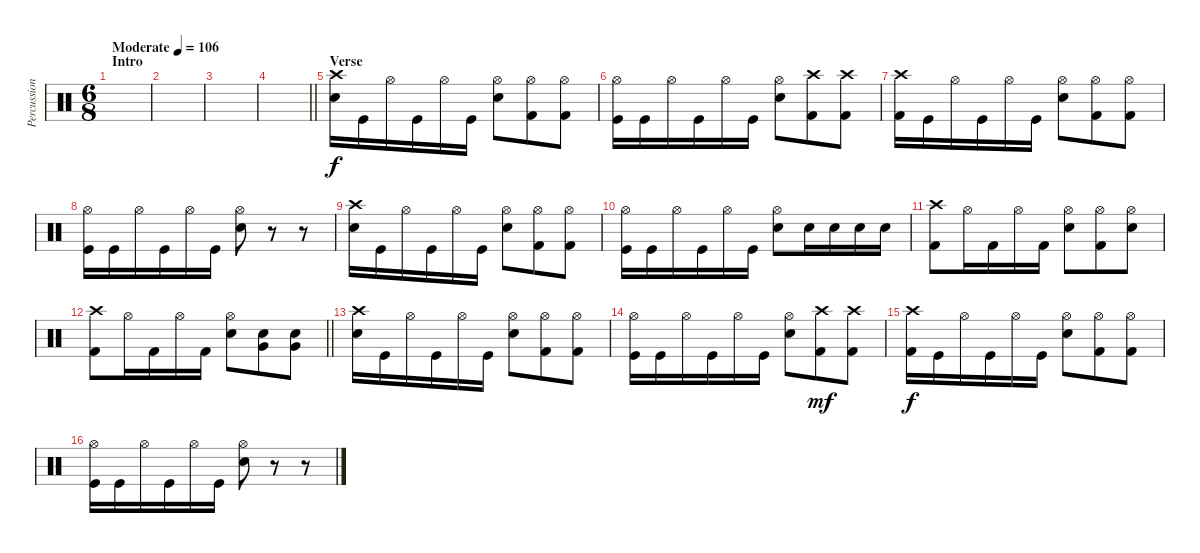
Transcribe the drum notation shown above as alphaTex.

\track ("Percussion" "Percussion") {instrument percussion}
\staff {score}
\articulation defaults
\ts (6 8)
\section ("" "Intro")
\tempo (106 "Moderate")
\clef neutral
\ks c
|
|
|
\barLineRight lightlight
|
\section ("" "Verse")
("Snare (hit) 2" "Crash high (hit)").16 "Kick (hit)".16 "Hi-Hat (open)".16 "Kick (hit)".16 "Hi-Hat (open)".16 "Kick (hit)".16 ("Snare (hit) 2" "Hi-Hat (open)").8 ("Kick (hit) 2" "Hi-Hat (open)").8 ("Kick (hit) 2" "Hi-Hat (open)").8 |
("Kick (hit)" "Hi-Hat (open)").16 "Kick (hit)".16 "Hi-Hat (open)".16 "Kick (hit)".16 "Hi-Hat (open)".16 "Kick (hit)".16 ("Snare (hit) 2" "Hi-Hat (open)").8 ("Kick (hit) 2" "Crash high (hit)").8 ("Kick (hit) 2" "Crash high (hit)").8 |
("Kick (hit) 2" "Crash high (hit)").16 "Kick (hit)".16 "Hi-Hat (open)".16 "Kick (hit)".16 "Hi-Hat (open)".16 "Kick (hit)".16 ("Snare (hit) 2" "Hi-Hat (open)").8 ("Kick (hit) 2" "Hi-Hat (open)").8 ("Kick (hit) 2" "Hi-Hat (open)").8 |
("Kick (hit)" "Hi-Hat (open)").16 "Kick (hit)".16 "Hi-Hat (open)".16 "Kick (hit)".16 "Hi-Hat (open)".16 "Kick (hit)".16 ("Snare (hit) 2" "Hi-Hat (open)").8 r.8 r.8 |
("Snare (hit) 2" "Crash high (hit)").16 "Kick (hit)".16 "Hi-Hat (open)".16 "Kick (hit)".16 "Hi-Hat (open)".16 "Kick (hit)".16 ("Snare (hit) 2" "Hi-Hat (open)").8 ("Kick (hit) 2" "Hi-Hat (open)").8 ("Kick (hit) 2" "Hi-Hat (open)").8 |
("Kick (hit)" "Hi-Hat (open)").16 "Kick (hit)".16 "Hi-Hat (open)".16 "Kick (hit)".16 "Hi-Hat (open)".16 "Kick (hit)".16 ("Snare (hit) 2" "Hi-Hat (open)").8 "Snare (hit) 2".16 "Snare (hit) 2".16 "Snare (hit) 2".16 "Snare (hit) 2".16 |
("Kick (hit) 2" "Crash high (hit)").8 "Hi-Hat (open)".16 "Kick (hit) 2".16 "Hi-Hat (open)".16 "Kick (hit) 2".16 ("Snare (hit) 2" "Hi-Hat (open)").8 ("Kick (hit) 2" "Hi-Hat (open)").8 ("Snare (hit) 2" "Hi-Hat (open)").8 |
\barLineRight lightlight
("Kick (hit) 2" "Crash high (hit)").8 "Hi-Hat (open)".16 "Kick (hit) 2".16 "Hi-Hat (open)".16 "Kick (hit) 2".16 ("Snare (hit) 2" "Hi-Hat (open)").8 ("Snare (hit) 2" "Very Low Tom (hit)").8 ("Snare (hit) 2" "Very Low Tom (hit)").8 |
("Snare (hit) 2" "Crash high (hit)").16 "Kick (hit)".16 "Hi-Hat (open)".16 "Kick (hit)".16 "Hi-Hat (open)".16 "Kick (hit)".16 ("Snare (hit) 2" "Hi-Hat (open)").8 ("Kick (hit) 2" "Hi-Hat (open)").8 ("Kick (hit) 2" "Hi-Hat (open)").8 |
("Kick (hit)" "Hi-Hat (open)").16 "Kick (hit)".16 "Hi-Hat (open)".16 "Kick (hit)".16 "Hi-Hat (open)".16 "Kick (hit)".16 ("Snare (hit) 2" "Hi-Hat (open)").8 ("Kick (hit) 2" "Crash high (hit)").8{dy mf} ("Kick (hit) 2" "Crash high (hit)").8 |
("Kick (hit) 2" "Crash high (hit)").16{dy f} "Kick (hit)".16 "Hi-Hat (open)".16 "Kick (hit)".16 "Hi-Hat (open)".16 "Kick (hit)".16 ("Snare (hit) 2" "Hi-Hat (open)").8 ("Kick (hit) 2" "Hi-Hat (open)").8 ("Kick (hit) 2" "Hi-Hat (open)").8 |
("Kick (hit)" "Hi-Hat (open)").16 "Kick (hit)".16 "Hi-Hat (open)".16 "Kick (hit)".16 "Hi-Hat (open)".16 "Kick (hit)".16 ("Snare (hit) 2" "Hi-Hat (open)").8 r.8 r.8
